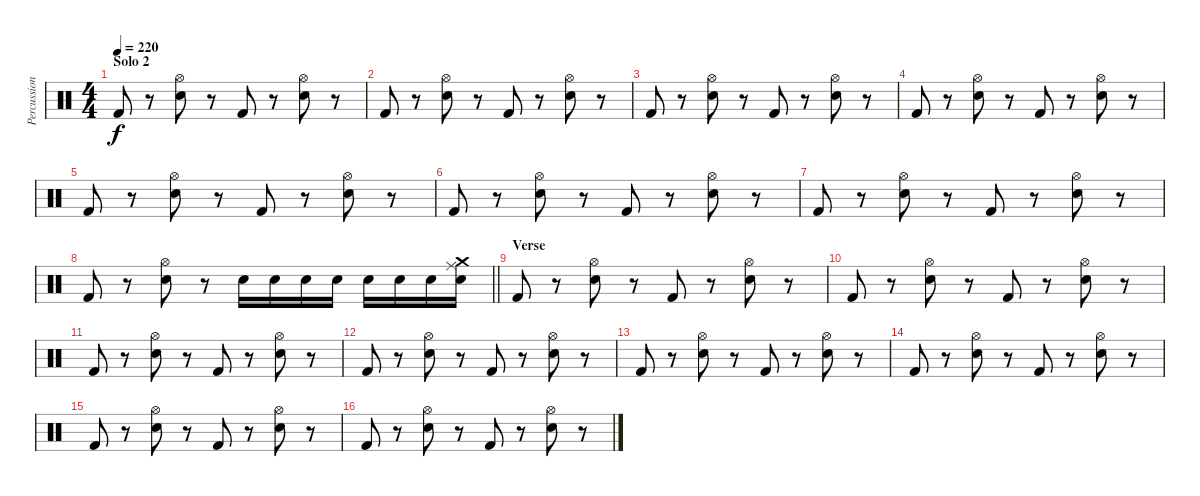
\track ("Percussion" "Percussion") {instrument percussion}
\staff {score}
\articulation defaults
\ts (4 4)
\section ("" "Solo 2")
\tempo 220
\clef neutral
\ks c "Kick (hit) 2".8{dy f}
r.8 ("Hi-Hat (open)" "Snare (hit) 2").8 r.8 "Kick (hit) 2".8 r.8 ("Hi-Hat (open)" "Snare (hit) 2").8 r.8 |
"Kick (hit) 2".8 r.8 ("Hi-Hat (open)" "Snare (hit) 2").8 r.8 "Kick (hit) 2".8 r.8 ("Hi-Hat (open)" "Snare (hit) 2").8 r.8 |
"Kick (hit) 2".8 r.8 ("Hi-Hat (open)" "Snare (hit) 2").8 r.8 "Kick (hit) 2".8 r.8 ("Hi-Hat (open)" "Snare (hit) 2").8 r.8 |
"Kick (hit) 2".8 r.8 ("Hi-Hat (open)" "Snare (hit) 2").8 r.8 "Kick (hit) 2".8 r.8 ("Hi-Hat (open)" "Snare (hit) 2").8 r.8 |
"Kick (hit) 2".8 r.8 ("Hi-Hat (open)" "Snare (hit) 2").8 r.8 "Kick (hit) 2".8 r.8 ("Hi-Hat (open)" "Snare (hit) 2").8 r.8 |
"Kick (hit) 2".8 r.8 ("Hi-Hat (open)" "Snare (hit) 2").8 r.8 "Kick (hit) 2".8 r.8 ("Hi-Hat (open)" "Snare (hit) 2").8 r.8 |
"Kick (hit) 2".8 r.8 ("Hi-Hat (open)" "Snare (hit) 2").8 r.8 "Kick (hit) 2".8 r.8 ("Hi-Hat (open)" "Snare (hit) 2").8 r.8 |
\barLineRight lightlight "Kick (hit) 2".8
r.8 ("Hi-Hat (open)" "Snare (hit) 2").8 r.8 "Snare (hit) 2".16 "Snare (hit) 2".16 "Snare (hit) 2".16 "Snare (hit) 2".16 "Snare (hit) 2".16 "Snare (hit) 2".16 "Snare (hit) 2".16 ("Crash medium (hit)" "Ride (middle)" "Snare (hit) 2").16 |
\section ("" "Verse")
"Kick (hit) 2".8 r.8 ("Hi-Hat (open)" "Snare (hit) 2").8 r.8 "Kick (hit) 2".8 r.8 ("Hi-Hat (open)" "Snare (hit) 2").8 r.8 |
"Kick (hit) 2".8 r.8 ("Hi-Hat (open)" "Snare (hit) 2").8 r.8 "Kick (hit) 2".8 r.8 ("Hi-Hat (open)" "Snare (hit) 2").8 r.8 |
"Kick (hit) 2".8 r.8 ("Hi-Hat (open)" "Snare (hit) 2").8 r.8 "Kick (hit) 2".8 r.8 ("Hi-Hat (open)" "Snare (hit) 2").8 r.8 |
"Kick (hit) 2".8 r.8 ("Hi-Hat (open)" "Snare (hit) 2").8 r.8 "Kick (hit) 2".8 r.8 ("Hi-Hat (open)" "Snare (hit) 2").8 r.8 |
"Kick (hit) 2".8 r.8 ("Hi-Hat (open)" "Snare (hit) 2").8 r.8 "Kick (hit) 2".8 r.8 ("Hi-Hat (open)" "Snare (hit) 2").8 r.8 |
"Kick (hit) 2".8 r.8 ("Hi-Hat (open)" "Snare (hit) 2").8 r.8 "Kick (hit) 2".8 r.8 ("Hi-Hat (open)" "Snare (hit) 2").8 r.8 |
"Kick (hit) 2".8 r.8 ("Hi-Hat (open)" "Snare (hit) 2").8 r.8 "Kick (hit) 2".8 r.8 ("Hi-Hat (open)" "Snare (hit) 2").8 r.8 |
"Kick (hit) 2".8 r.8 ("Hi-Hat (open)" "Snare (hit) 2").8 r.8 "Kick (hit) 2".8 r.8 ("Hi-Hat (open)" "Snare (hit) 2").8 r.8
